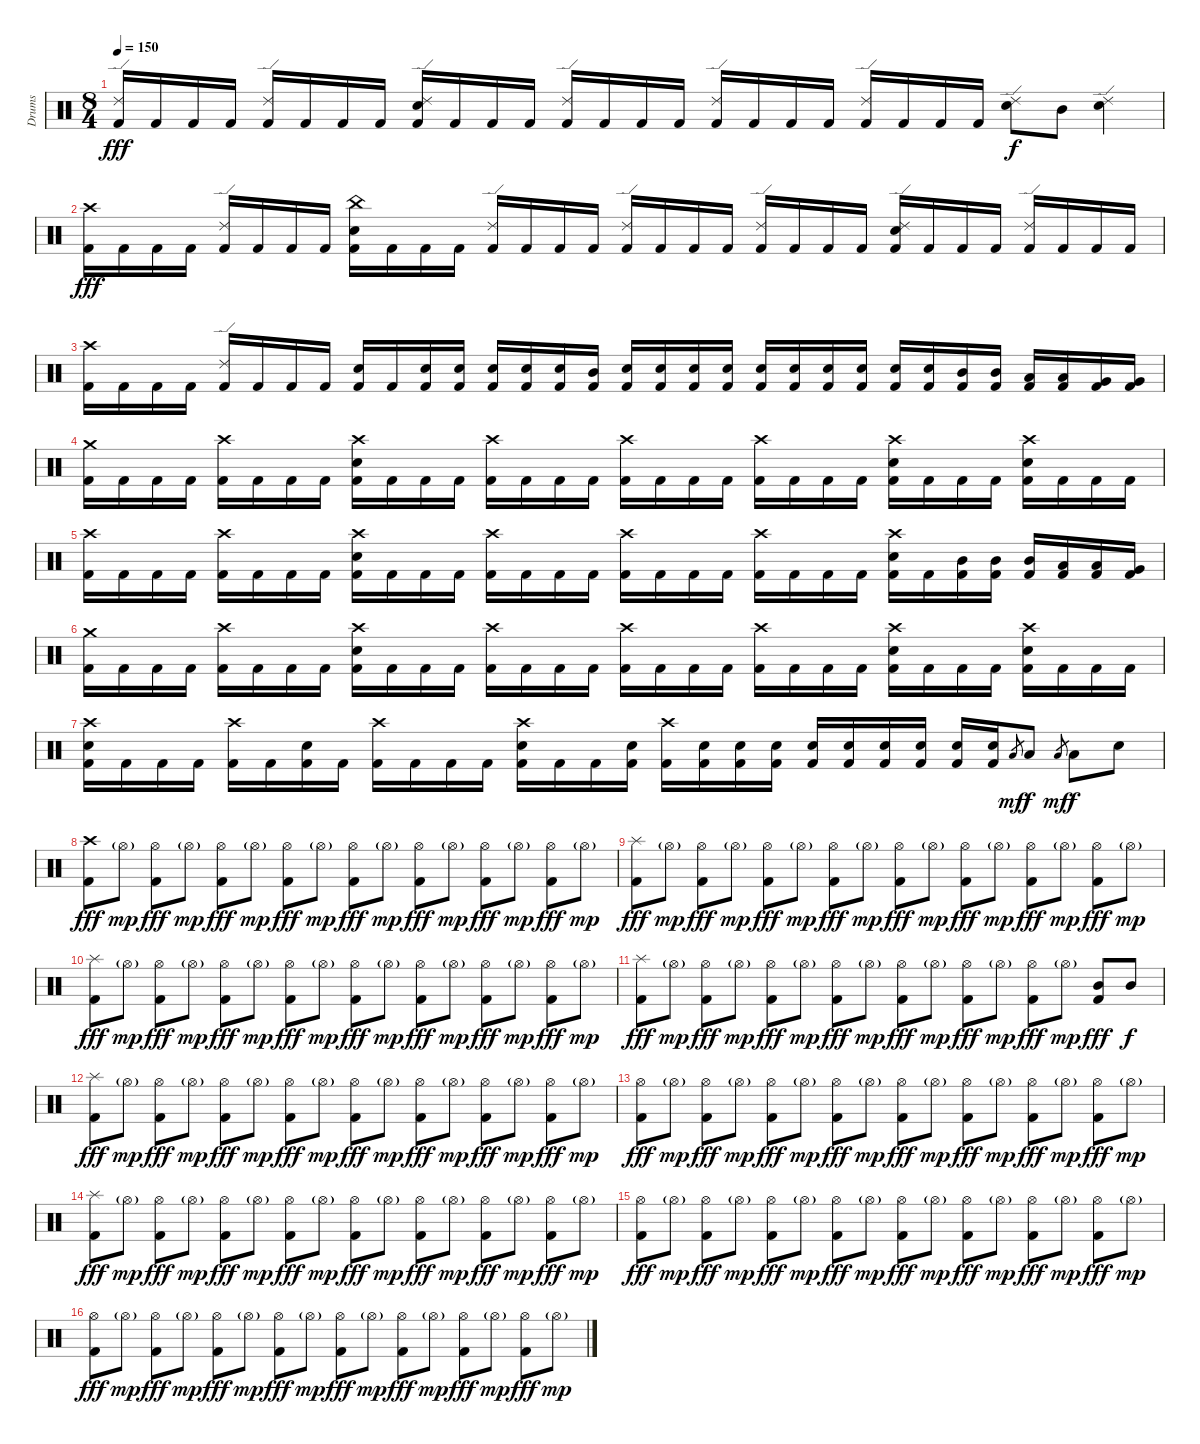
\track ("Drums" "Drums") {instrument percussion}
\staff {score}
\articulation defaults
\ts (8 4)
\tempo 150
\clef neutral
\ks c
("Ride (edge) 2" "Kick (hit) 2").16{dy fff} "Kick (hit) 2".16 "Kick (hit) 2".16 "Kick (hit) 2".16 ("Ride (edge) 2" "Kick (hit) 2").16 "Kick (hit) 2".16 "Kick (hit) 2".16 "Kick (hit) 2".16 ("Ride (edge) 2" "Snare (hit) 2" "Kick (hit) 2").16 "Kick (hit) 2".16 "Kick (hit) 2".16 "Kick (hit) 2".16 ("Ride (edge) 2" "Kick (hit) 2").16 "Kick (hit) 2".16 "Kick (hit) 2".16 "Kick (hit) 2".16 ("Ride (edge) 2" "Kick (hit) 2").16 "Kick (hit) 2".16 "Kick (hit) 2".16 "Kick (hit) 2".16 ("Ride (edge) 2" "Kick (hit) 2").16 "Kick (hit) 2".16 "Kick (hit) 2".16 "Kick (hit) 2".16 ("Ride (edge) 2" "Snare (hit) 2").8{dy f} "Mid Tom (hit)".8 ("Ride (edge) 2" "Snare (hit) 2").4 |
("Crash high (hit)" "Kick (hit) 2").16{dy fff} "Kick (hit) 2".16 "Kick (hit) 2".16 "Kick (hit) 2".16 ("Ride (edge) 2" "Kick (hit) 2").16 "Kick (hit) 2".16 "Kick (hit) 2".16 "Kick (hit) 2".16 ("China (hit)" "Snare (hit) 2" "Kick (hit) 2").16 "Kick (hit) 2".16 "Kick (hit) 2".16 "Kick (hit) 2".16 ("Ride (edge) 2" "Kick (hit) 2").16 "Kick (hit) 2".16 "Kick (hit) 2".16 "Kick (hit) 2".16 ("Ride (edge) 2" "Kick (hit) 2").16 "Kick (hit) 2".16 "Kick (hit) 2".16 "Kick (hit) 2".16 ("Ride (edge) 2" "Kick (hit) 2").16 "Kick (hit) 2".16 "Kick (hit) 2".16 "Kick (hit) 2".16 ("Ride (edge) 2" "Snare (hit) 2" "Kick (hit) 2").16 "Kick (hit) 2".16 "Kick (hit) 2".16 "Kick (hit) 2".16 ("Ride (edge) 2" "Kick (hit) 2").16 "Kick (hit) 2".16 "Kick (hit) 2".16 "Kick (hit) 2".16 |
("Crash high (hit)" "Kick (hit) 2").16 "Kick (hit) 2".16 "Kick (hit) 2".16 "Kick (hit) 2".16 ("Ride (edge) 2" "Kick (hit) 2").16 "Kick (hit) 2".16 "Kick (hit) 2".16 "Kick (hit) 2".16 ("Snare (hit) 2" "Kick (hit) 2").16 "Kick (hit) 2".16 ("Snare (hit) 2" "Kick (hit) 2").16 ("Snare (hit) 2" "Kick (hit) 2").16 ("Snare (hit) 2" "Kick (hit) 2").16 ("Snare (hit) 2" "Kick (hit) 2").16 ("Snare (hit) 2" "Kick (hit) 2").16 ("Mid Tom (hit)" "Kick (hit) 2").16 ("Snare (hit) 2" "Kick (hit) 2").16 ("Snare (hit) 2" "Kick (hit) 2").16 ("Snare (hit) 2" "Kick (hit) 2").16 ("Snare (hit) 2" "Kick (hit) 2").16 ("Snare (hit) 2" "Kick (hit) 2").16 ("Snare (hit) 2" "Kick (hit) 2").16 ("Snare (hit) 2" "Kick (hit) 2").16 ("Snare (hit) 2" "Kick (hit) 2").16 ("Snare (hit) 2" "Kick (hit) 2").16 ("Snare (hit) 2" "Kick (hit) 2").16 ("Mid Tom (hit)" "Kick (hit) 2").16 ("Mid Tom (hit)" "Kick (hit) 2").16 ("Low Tom (hit)" "Kick (hit) 2").16 ("Low Tom (hit)" "Kick (hit) 2").16 ("Very Low Tom (hit)" "Kick (hit) 2").16 ("Very Low Tom (hit)" "Kick (hit) 2").16 |
("Crash medium (hit)" "Kick (hit) 2").16 "Kick (hit) 2".16 "Kick (hit) 2".16 "Kick (hit) 2".16 ("Crash high (hit)" "Kick (hit) 2").16 "Kick (hit) 2".16 "Kick (hit) 2".16 "Kick (hit) 2".16 ("Crash high (hit)" "Snare (hit) 2" "Kick (hit) 2").16 "Kick (hit) 2".16 "Kick (hit) 2".16 "Kick (hit) 2".16 ("Crash high (hit)" "Kick (hit) 2").16 "Kick (hit) 2".16 "Kick (hit) 2".16 "Kick (hit) 2".16 ("Crash high (hit)" "Kick (hit) 2").16 "Kick (hit) 2".16 "Kick (hit) 2".16 "Kick (hit) 2".16 ("Crash high (hit)" "Kick (hit) 2").16 "Kick (hit) 2".16 "Kick (hit) 2".16 "Kick (hit) 2".16 ("Crash high (hit)" "Snare (hit) 2" "Kick (hit) 2").16 "Kick (hit) 2".16 "Kick (hit) 2".16 "Kick (hit) 2".16 ("Crash high (hit)" "Snare (hit) 2" "Kick (hit) 2").16 "Kick (hit) 2".16 "Kick (hit) 2".16 "Kick (hit) 2".16 |
("Crash high (hit)" "Kick (hit) 2").16 "Kick (hit) 2".16 "Kick (hit) 2".16 "Kick (hit) 2".16 ("Crash high (hit)" "Kick (hit) 2").16 "Kick (hit) 2".16 "Kick (hit) 2".16 "Kick (hit) 2".16 ("Crash high (hit)" "Snare (hit) 2" "Kick (hit) 2").16 "Kick (hit) 2".16 "Kick (hit) 2".16 "Kick (hit) 2".16 ("Crash high (hit)" "Kick (hit) 2").16 "Kick (hit) 2".16 "Kick (hit) 2".16 "Kick (hit) 2".16 ("Crash high (hit)" "Kick (hit) 2").16 "Kick (hit) 2".16 "Kick (hit) 2".16 "Kick (hit) 2".16 ("Crash high (hit)" "Kick (hit) 2").16 "Kick (hit) 2".16 "Kick (hit) 2".16 "Kick (hit) 2".16 ("Crash high (hit)" "Snare (hit) 2" "Kick (hit) 2").16 "Kick (hit) 2".16 ("Mid Tom (hit)" "Kick (hit) 2").16 ("Mid Tom (hit)" "Kick (hit) 2").16 ("Mid Tom (hit)" "Kick (hit) 2").16 ("Low Tom (hit)" "Kick (hit) 2").16 ("Low Tom (hit)" "Kick (hit) 2").16 ("Very Low Tom (hit)" "Kick (hit) 2").16 |
("Crash medium (hit)" "Kick (hit) 2").16 "Kick (hit) 2".16 "Kick (hit) 2".16 "Kick (hit) 2".16 ("Crash high (hit)" "Kick (hit) 2").16 "Kick (hit) 2".16 "Kick (hit) 2".16 "Kick (hit) 2".16 ("Crash high (hit)" "Snare (hit) 2" "Kick (hit) 2").16 "Kick (hit) 2".16 "Kick (hit) 2".16 "Kick (hit) 2".16 ("Crash high (hit)" "Kick (hit) 2").16 "Kick (hit) 2".16 "Kick (hit) 2".16 "Kick (hit) 2".16 ("Crash high (hit)" "Kick (hit) 2").16 "Kick (hit) 2".16 "Kick (hit) 2".16 "Kick (hit) 2".16 ("Crash high (hit)" "Kick (hit) 2").16 "Kick (hit) 2".16 "Kick (hit) 2".16 "Kick (hit) 2".16 ("Crash high (hit)" "Snare (hit) 2" "Kick (hit) 2").16 "Kick (hit) 2".16 "Kick (hit) 2".16 "Kick (hit) 2".16 ("Crash high (hit)" "Snare (hit) 2" "Kick (hit) 2").16 "Kick (hit) 2".16 "Kick (hit) 2".16 "Kick (hit) 2".16 |
("Crash high (hit)" "Snare (hit) 2" "Kick (hit) 2").16 "Kick (hit) 2".16 "Kick (hit) 2".16 "Kick (hit) 2".16 ("Crash high (hit)" "Kick (hit) 2").16 "Kick (hit) 2".16 ("Snare (hit) 2" "Kick (hit) 2").16 "Kick (hit) 2".16 ("Crash high (hit)" "Kick (hit) 2").16 "Kick (hit) 2".16 "Kick (hit) 2".16 "Kick (hit) 2".16 ("Crash high (hit)" "Snare (hit) 2" "Kick (hit) 2").16 "Kick (hit) 2".16 "Kick (hit) 2".16 ("Snare (hit) 2" "Kick (hit) 2").16 ("Crash high (hit)" "Kick (hit) 2").16 ("Snare (hit) 2" "Kick (hit) 2").16 ("Snare (hit) 2" "Kick (hit) 2").16 ("Snare (hit) 2" "Kick (hit) 2").16 ("Snare (hit) 2" "Kick (hit) 2").16 ("Snare (hit) 2" "Kick (hit) 2").16 ("Snare (hit) 2" "Kick (hit) 2").16 ("Snare (hit) 2" "Kick (hit) 2").16 ("Snare (hit) 2" "Kick (hit) 2").16 ("Snare (hit) 2" "Kick (hit) 2").16 "Low Tom (hit)".8{gr dy mf} "Low Tom (hit)".8{dy f} "Low Tom (hit)".8{gr dy mf} "Low Tom (hit)".8{dy f} "Snare (hit) 2".8 |
("Crash high (hit)" "Kick (hit) 2").8{dy fff} "Hi-Hat (open)"{g}.8{dy mp} ("Hi-Hat (open)" "Kick (hit) 2").8{dy fff} "Hi-Hat (open)"{g}.8{dy mp} ("Hi-Hat (open)" "Kick (hit) 2").8{dy fff} "Hi-Hat (open)"{g}.8{dy mp} ("Hi-Hat (open)" "Kick (hit) 2").8{dy fff} "Hi-Hat (open)"{g}.8{dy mp} ("Hi-Hat (open)" "Kick (hit) 2").8{dy fff} "Hi-Hat (open)"{g}.8{dy mp} ("Hi-Hat (open)" "Kick (hit) 2").8{dy fff} "Hi-Hat (open)"{g}.8{dy mp} ("Hi-Hat (open)" "Kick (hit) 2").8{dy fff} "Hi-Hat (open)"{g}.8{dy mp} ("Hi-Hat (open)" "Kick (hit) 2").8{dy fff} "Hi-Hat (open)"{g}.8{dy mp} |
("Splash (hit)" "Kick (hit) 2").8{dy fff} "Hi-Hat (open)"{g}.8{dy mp} ("Hi-Hat (open)" "Kick (hit) 2").8{dy fff} "Hi-Hat (open)"{g}.8{dy mp} ("Hi-Hat (open)" "Kick (hit) 2").8{dy fff} "Hi-Hat (open)"{g}.8{dy mp} ("Hi-Hat (open)" "Kick (hit) 2").8{dy fff} "Hi-Hat (open)"{g}.8{dy mp} ("Hi-Hat (open)" "Kick (hit) 2").8{dy fff} "Hi-Hat (open)"{g}.8{dy mp} ("Hi-Hat (open)" "Kick (hit) 2").8{dy fff} "Hi-Hat (open)"{g}.8{dy mp} ("Hi-Hat (open)" "Kick (hit) 2").8{dy fff} "Hi-Hat (open)"{g}.8{dy mp} ("Hi-Hat (open)" "Kick (hit) 2").8{dy fff} "Hi-Hat (open)"{g}.8{dy mp} |
("Splash (hit)" "Kick (hit) 2").8{dy fff} "Hi-Hat (open)"{g}.8{dy mp} ("Hi-Hat (open)" "Kick (hit) 2").8{dy fff} "Hi-Hat (open)"{g}.8{dy mp} ("Hi-Hat (open)" "Kick (hit) 2").8{dy fff} "Hi-Hat (open)"{g}.8{dy mp} ("Hi-Hat (open)" "Kick (hit) 2").8{dy fff} "Hi-Hat (open)"{g}.8{dy mp} ("Hi-Hat (open)" "Kick (hit) 2").8{dy fff} "Hi-Hat (open)"{g}.8{dy mp} ("Hi-Hat (open)" "Kick (hit) 2").8{dy fff} "Hi-Hat (open)"{g}.8{dy mp} ("Hi-Hat (open)" "Kick (hit) 2").8{dy fff} "Hi-Hat (open)"{g}.8{dy mp} ("Hi-Hat (open)" "Kick (hit) 2").8{dy fff} "Hi-Hat (open)"{g}.8{dy mp} |
("Splash (hit)" "Kick (hit) 2").8{dy fff} "Hi-Hat (open)"{g}.8{dy mp} ("Hi-Hat (open)" "Kick (hit) 2").8{dy fff} "Hi-Hat (open)"{g}.8{dy mp} ("Hi-Hat (open)" "Kick (hit) 2").8{dy fff} "Hi-Hat (open)"{g}.8{dy mp} ("Hi-Hat (open)" "Kick (hit) 2").8{dy fff} "Hi-Hat (open)"{g}.8{dy mp} ("Hi-Hat (open)" "Kick (hit) 2").8{dy fff} "Hi-Hat (open)"{g}.8{dy mp} ("Hi-Hat (open)" "Kick (hit) 2").8{dy fff} "Hi-Hat (open)"{g}.8{dy mp} ("Hi-Hat (open)" "Kick (hit) 2").8{dy fff} "Hi-Hat (open)"{g}.8{dy mp} ("Mid Tom (hit)" "Kick (hit) 2").8{dy fff} "Mid Tom (hit)".8{dy f} |
("Splash (hit)" "Kick (hit) 2").8{dy fff volume 12} "Hi-Hat (open)"{g}.8{dy mp} ("Hi-Hat (open)" "Kick (hit) 2").8{dy fff} "Hi-Hat (open)"{g}.8{dy mp} ("Hi-Hat (open)" "Kick (hit) 2").8{dy fff} "Hi-Hat (open)"{g}.8{dy mp} ("Hi-Hat (open)" "Kick (hit) 2").8{dy fff} "Hi-Hat (open)"{g}.8{dy mp} ("Hi-Hat (open)" "Kick (hit) 2").8{dy fff} "Hi-Hat (open)"{g}.8{dy mp} ("Hi-Hat (open)" "Kick (hit) 2").8{dy fff} "Hi-Hat (open)"{g}.8{dy mp} ("Hi-Hat (open)" "Kick (hit) 2").8{dy fff} "Hi-Hat (open)"{g}.8{dy mp} ("Hi-Hat (open)" "Kick (hit) 2").8{dy fff} "Hi-Hat (open)"{g}.8{dy mp} |
("Hi-Hat (open)" "Kick (hit) 2").8{dy fff} "Hi-Hat (open)"{g}.8{dy mp} ("Hi-Hat (open)" "Kick (hit) 2").8{dy fff} "Hi-Hat (open)"{g}.8{dy mp} ("Hi-Hat (open)" "Kick (hit) 2").8{dy fff} "Hi-Hat (open)"{g}.8{dy mp} ("Hi-Hat (open)" "Kick (hit) 2").8{dy fff} "Hi-Hat (open)"{g}.8{dy mp} ("Hi-Hat (open)" "Kick (hit) 2").8{dy fff} "Hi-Hat (open)"{g}.8{dy mp} ("Hi-Hat (open)" "Kick (hit) 2").8{dy fff} "Hi-Hat (open)"{g}.8{dy mp} ("Hi-Hat (open)" "Kick (hit) 2").8{dy fff} "Hi-Hat (open)"{g}.8{dy mp} ("Hi-Hat (open)" "Kick (hit) 2").8{dy fff} "Hi-Hat (open)"{g}.8{dy mp} |
("Splash (hit)" "Kick (hit) 2").8{dy fff volume 11} "Hi-Hat (open)"{g}.8{dy mp} ("Hi-Hat (open)" "Kick (hit) 2").8{dy fff} "Hi-Hat (open)"{g}.8{dy mp} ("Hi-Hat (open)" "Kick (hit) 2").8{dy fff} "Hi-Hat (open)"{g}.8{dy mp} ("Hi-Hat (open)" "Kick (hit) 2").8{dy fff} "Hi-Hat (open)"{g}.8{dy mp} ("Hi-Hat (open)" "Kick (hit) 2").8{dy fff} "Hi-Hat (open)"{g}.8{dy mp} ("Hi-Hat (open)" "Kick (hit) 2").8{dy fff} "Hi-Hat (open)"{g}.8{dy mp} ("Hi-Hat (open)" "Kick (hit) 2").8{dy fff} "Hi-Hat (open)"{g}.8{dy mp} ("Hi-Hat (open)" "Kick (hit) 2").8{dy fff} "Hi-Hat (open)"{g}.8{dy mp} |
("Hi-Hat (open)" "Kick (hit) 2").8{dy fff} "Hi-Hat (open)"{g}.8{dy mp} ("Hi-Hat (open)" "Kick (hit) 2").8{dy fff} "Hi-Hat (open)"{g}.8{dy mp} ("Hi-Hat (open)" "Kick (hit) 2").8{dy fff} "Hi-Hat (open)"{g}.8{dy mp} ("Hi-Hat (open)" "Kick (hit) 2").8{dy fff} "Hi-Hat (open)"{g}.8{dy mp} ("Hi-Hat (open)" "Kick (hit) 2").8{dy fff} "Hi-Hat (open)"{g}.8{dy mp} ("Hi-Hat (open)" "Kick (hit) 2").8{dy fff} "Hi-Hat (open)"{g}.8{dy mp} ("Hi-Hat (open)" "Kick (hit) 2").8{dy fff} "Hi-Hat (open)"{g}.8{dy mp} ("Hi-Hat (open)" "Kick (hit) 2").8{dy fff} "Hi-Hat (open)"{g}.8{dy mp} |
("Hi-Hat (open)" "Kick (hit) 2").8{dy fff volume 9} "Hi-Hat (open)"{g}.8{dy mp} ("Hi-Hat (open)" "Kick (hit) 2").8{dy fff} "Hi-Hat (open)"{g}.8{dy mp} ("Hi-Hat (open)" "Kick (hit) 2").8{dy fff} "Hi-Hat (open)"{g}.8{dy mp} ("Hi-Hat (open)" "Kick (hit) 2").8{dy fff} "Hi-Hat (open)"{g}.8{dy mp} ("Hi-Hat (open)" "Kick (hit) 2").8{dy fff} "Hi-Hat (open)"{g}.8{dy mp} ("Hi-Hat (open)" "Kick (hit) 2").8{dy fff} "Hi-Hat (open)"{g}.8{dy mp} ("Hi-Hat (open)" "Kick (hit) 2").8{dy fff} "Hi-Hat (open)"{g}.8{dy mp} ("Hi-Hat (open)" "Kick (hit) 2").8{dy fff} "Hi-Hat (open)"{g}.8{dy mp}
